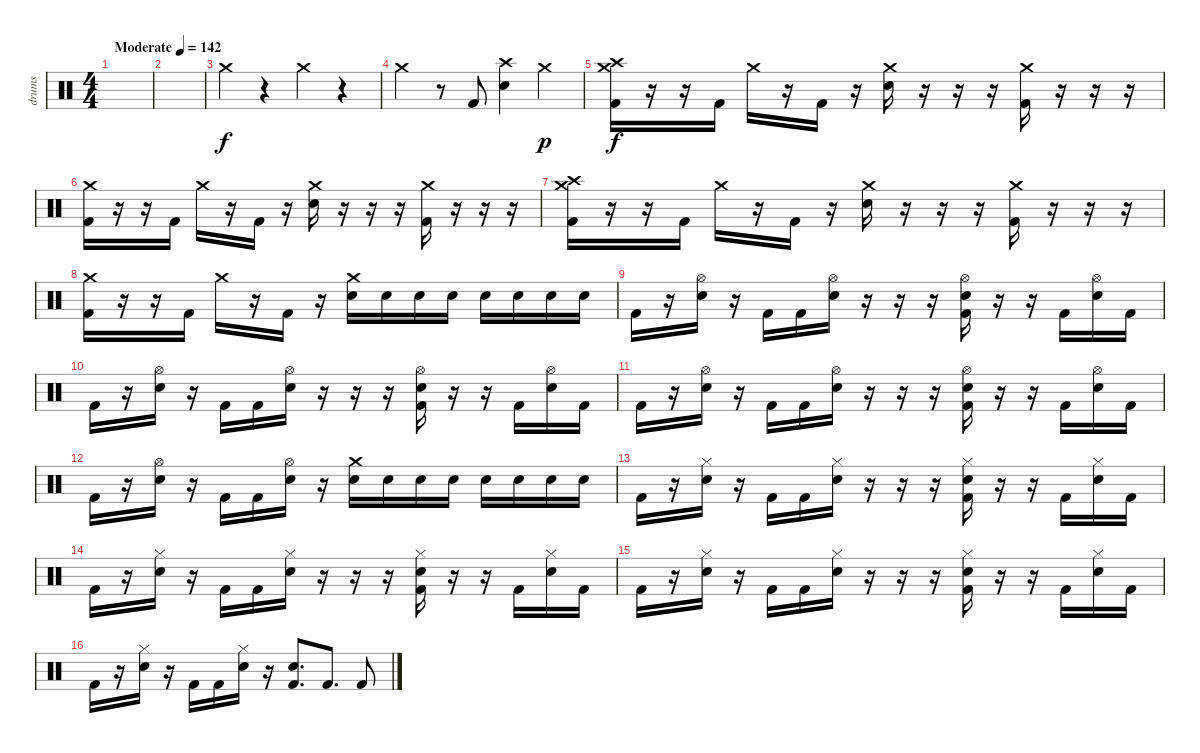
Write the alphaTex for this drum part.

\track ("drums" "drums") {instrument percussion}
\staff {score}
\articulation defaults
\ts (4 4)
\tempo (142 "Moderate")
\clef neutral
\ks c
|
|
"Crash medium (hit)".4 r.4 "Crash medium (hit)".4 r.4 |
"Crash medium (hit)".4 r.8 "Kick (hit) 2".8{dy f} ("Crash high (hit)" "Electric Snare (hit)").4 "Crash medium (hit)".4{dy p} |
("Crash medium (hit)" "Crash high (hit)" "Kick (hit) 2").16{dy f} r.16 r.16 "Kick (hit) 2".16 "Crash medium (hit)".16 r.16 "Kick (hit) 2".16 r.16 ("Crash medium (hit)" "Electric Snare (hit)").16 r.16 r.16 r.16 ("Crash medium (hit)" "Kick (hit) 2").16 r.16 r.16 r.16 |
("Crash medium (hit)" "Kick (hit) 2").16 r.16 r.16 "Kick (hit) 2".16 "Crash medium (hit)".16 r.16 "Kick (hit) 2".16 r.16 ("Crash medium (hit)" "Electric Snare (hit)").16 r.16 r.16 r.16 ("Crash medium (hit)" "Kick (hit) 2").16 r.16 r.16 r.16 |
("Crash medium (hit)" "Crash high (hit)" "Kick (hit) 2").16 r.16 r.16 "Kick (hit) 2".16 "Crash medium (hit)".16 r.16 "Kick (hit) 2".16 r.16 ("Crash medium (hit)" "Electric Snare (hit)").16 r.16 r.16 r.16 ("Crash medium (hit)" "Kick (hit) 2").16 r.16 r.16 r.16 |
("Crash medium (hit)" "Kick (hit) 2").16 r.16 r.16 "Kick (hit) 2".16 "Crash medium (hit)".16 r.16 "Kick (hit) 2".16 r.16 ("Crash medium (hit)" "Electric Snare (hit)").16 "Electric Snare (hit)".16 "Electric Snare (hit)".16 "Electric Snare (hit)".16 "Electric Snare (hit)".16 "Electric Snare (hit)".16 "Electric Snare (hit)".16 "Electric Snare (hit)".16 |
"Kick (hit) 2".16 r.16 ("Hi-Hat (open)" "Electric Snare (hit)").16 r.16 "Kick (hit) 2".16 "Kick (hit) 2".16 ("Hi-Hat (open)" "Electric Snare (hit)").16 r.16 r.16 r.16 ("Hi-Hat (open)" "Electric Snare (hit)" "Kick (hit) 2").16 r.16 r.16 "Kick (hit) 2".16 ("Hi-Hat (open)" "Electric Snare (hit)").16 "Kick (hit) 2".16 |
"Kick (hit) 2".16 r.16 ("Hi-Hat (open)" "Electric Snare (hit)").16 r.16 "Kick (hit) 2".16 "Kick (hit) 2".16 ("Hi-Hat (open)" "Electric Snare (hit)").16 r.16 r.16 r.16 ("Hi-Hat (open)" "Electric Snare (hit)" "Kick (hit) 2").16 r.16 r.16 "Kick (hit) 2".16 ("Hi-Hat (open)" "Electric Snare (hit)").16 "Kick (hit) 2".16 |
"Kick (hit) 2".16 r.16 ("Hi-Hat (open)" "Electric Snare (hit)").16 r.16 "Kick (hit) 2".16 "Kick (hit) 2".16 ("Hi-Hat (open)" "Electric Snare (hit)").16 r.16 r.16 r.16 ("Hi-Hat (open)" "Electric Snare (hit)" "Kick (hit) 2").16 r.16 r.16 "Kick (hit) 2".16 ("Hi-Hat (open)" "Electric Snare (hit)").16 "Kick (hit) 2".16 |
"Kick (hit) 2".16 r.16 ("Hi-Hat (open)" "Electric Snare (hit)").16 r.16 "Kick (hit) 2".16 "Kick (hit) 2".16 ("Hi-Hat (open)" "Electric Snare (hit)").16 r.16 ("Crash medium (hit)" "Electric Snare (hit)").16 "Electric Snare (hit)".16 "Electric Snare (hit)".16 "Electric Snare (hit)".16 "Electric Snare (hit)".16 "Electric Snare (hit)".16 "Electric Snare (hit)".16 "Electric Snare (hit)".16 |
"Kick (hit) 2".16 r.16 ("Hi-Hat (closed)" "Electric Snare (hit)").16 r.16 "Kick (hit) 2".16 "Kick (hit) 2".16 ("Hi-Hat (closed)" "Electric Snare (hit)").16 r.16 r.16 r.16 ("Hi-Hat (closed)" "Electric Snare (hit)" "Kick (hit) 2").16 r.16 r.16 "Kick (hit) 2".16 ("Hi-Hat (closed)" "Electric Snare (hit)").16 "Kick (hit) 2".16 |
"Kick (hit) 2".16 r.16 ("Hi-Hat (closed)" "Electric Snare (hit)").16 r.16 "Kick (hit) 2".16 "Kick (hit) 2".16 ("Hi-Hat (closed)" "Electric Snare (hit)").16 r.16 r.16 r.16 ("Hi-Hat (closed)" "Electric Snare (hit)" "Kick (hit) 2").16 r.16 r.16 "Kick (hit) 2".16 ("Hi-Hat (closed)" "Electric Snare (hit)").16 "Kick (hit) 2".16 |
"Kick (hit) 2".16 r.16 ("Hi-Hat (closed)" "Electric Snare (hit)").16 r.16 "Kick (hit) 2".16 "Kick (hit) 2".16 ("Hi-Hat (closed)" "Electric Snare (hit)").16 r.16 r.16 r.16 ("Hi-Hat (closed)" "Electric Snare (hit)" "Kick (hit) 2").16 r.16 r.16 "Kick (hit) 2".16 ("Hi-Hat (closed)" "Electric Snare (hit)").16 "Kick (hit) 2".16 |
"Kick (hit) 2".16 r.16 ("Hi-Hat (closed)" "Electric Snare (hit)").16 r.16 "Kick (hit) 2".16 "Kick (hit) 2".16 ("Hi-Hat (closed)" "Electric Snare (hit)").16 r.16 ("Electric Snare (hit)" "Kick (hit) 2").8{d} "Kick (hit) 2".8{d} "Kick (hit) 2".8
